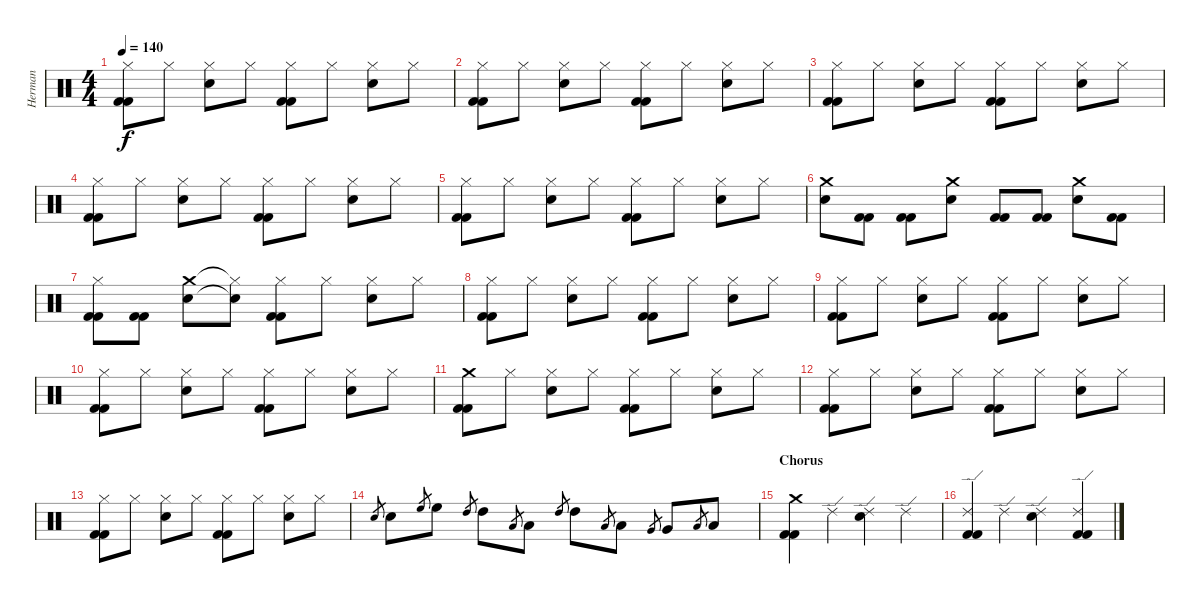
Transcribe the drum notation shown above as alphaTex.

\track ("Herman" "Herman") {instrument percussion}
\staff {score}
\articulation defaults
\ts (4 4)
\tempo 140
\clef neutral
\ks c
("Hi-Hat (closed)" "Kick (hit) 2" "Kick (hit) 2").8{dy f} "Hi-Hat (closed)".8 ("Hi-Hat (closed)" "Electric Snare (hit)").8 "Hi-Hat (closed)".8 ("Kick (hit) 2" "Kick (hit) 2" "Hi-Hat (closed)").8 "Hi-Hat (closed)".8 ("Hi-Hat (closed)" "Electric Snare (hit)").8 "Hi-Hat (closed)".8 |
("Hi-Hat (closed)" "Kick (hit) 2" "Kick (hit) 2").8 "Hi-Hat (closed)".8 ("Hi-Hat (closed)" "Electric Snare (hit)").8 "Hi-Hat (closed)".8 ("Kick (hit) 2" "Kick (hit) 2" "Hi-Hat (closed)").8 "Hi-Hat (closed)".8 ("Hi-Hat (closed)" "Electric Snare (hit)").8 "Hi-Hat (closed)".8 |
("Hi-Hat (closed)" "Kick (hit) 2" "Kick (hit) 2").8 "Hi-Hat (closed)".8 ("Hi-Hat (closed)" "Electric Snare (hit)").8 "Hi-Hat (closed)".8 ("Kick (hit) 2" "Kick (hit) 2" "Hi-Hat (closed)").8 "Hi-Hat (closed)".8 ("Hi-Hat (closed)" "Electric Snare (hit)").8 "Hi-Hat (closed)".8 |
("Hi-Hat (closed)" "Kick (hit) 2" "Kick (hit) 2").8 "Hi-Hat (closed)".8 ("Hi-Hat (closed)" "Electric Snare (hit)").8 "Hi-Hat (closed)".8 ("Kick (hit) 2" "Kick (hit) 2" "Hi-Hat (closed)").8 "Hi-Hat (closed)".8 ("Hi-Hat (closed)" "Electric Snare (hit)").8 "Hi-Hat (closed)".8 |
("Hi-Hat (closed)" "Kick (hit) 2" "Kick (hit) 2").8 "Hi-Hat (closed)".8 ("Hi-Hat (closed)" "Electric Snare (hit)").8 "Hi-Hat (closed)".8 ("Kick (hit) 2" "Kick (hit) 2" "Hi-Hat (closed)").8 "Hi-Hat (closed)".8 ("Hi-Hat (closed)" "Electric Snare (hit)").8 "Hi-Hat (closed)".8 |
("Crash medium (hit)" "Electric Snare (hit)").8 ("Kick (hit) 2" "Kick (hit) 2").8 ("Kick (hit) 2" "Kick (hit) 2").8 ("Crash medium (hit)" "Electric Snare (hit)").8 ("Kick (hit) 2" "Kick (hit) 2").8 ("Kick (hit) 2" "Kick (hit) 2").8 ("Crash medium (hit)" "Electric Snare (hit)").8 ("Kick (hit) 2" "Kick (hit) 2").8 |
("Hi-Hat (closed)" "Kick (hit) 2" "Kick (hit) 2").8 ("Kick (hit) 2" "Kick (hit) 2").8 ("Crash medium (hit)" "Electric Snare (hit)").8 ("Hi-Hat (closed)"{t} "Snare (hit)"{t}).8 ("Kick (hit) 2" "Kick (hit) 2" "Hi-Hat (closed)").8 "Hi-Hat (closed)".8 ("Hi-Hat (closed)" "Electric Snare (hit)").8 "Hi-Hat (closed)".8 |
("Hi-Hat (closed)" "Kick (hit) 2" "Kick (hit) 2").8 "Hi-Hat (closed)".8 ("Hi-Hat (closed)" "Electric Snare (hit)").8 "Hi-Hat (closed)".8 ("Kick (hit) 2" "Kick (hit) 2" "Hi-Hat (closed)").8 "Hi-Hat (closed)".8 ("Hi-Hat (closed)" "Electric Snare (hit)").8 "Hi-Hat (closed)".8 |
("Hi-Hat (closed)" "Kick (hit) 2" "Kick (hit) 2").8 "Hi-Hat (closed)".8 ("Hi-Hat (closed)" "Electric Snare (hit)").8 "Hi-Hat (closed)".8 ("Kick (hit) 2" "Kick (hit) 2" "Hi-Hat (closed)").8 "Hi-Hat (closed)".8 ("Hi-Hat (closed)" "Electric Snare (hit)").8 "Hi-Hat (closed)".8 |
("Hi-Hat (closed)" "Kick (hit) 2" "Kick (hit) 2").8 "Hi-Hat (closed)".8 ("Hi-Hat (closed)" "Electric Snare (hit)").8 "Hi-Hat (closed)".8 ("Kick (hit) 2" "Kick (hit) 2" "Hi-Hat (closed)").8 "Hi-Hat (closed)".8 ("Hi-Hat (closed)" "Electric Snare (hit)").8 "Hi-Hat (closed)".8 |
("Crash medium (hit)" "Kick (hit) 2" "Kick (hit) 2").8 "Hi-Hat (closed)".8 ("Hi-Hat (closed)" "Electric Snare (hit)").8 "Hi-Hat (closed)".8 ("Kick (hit) 2" "Kick (hit) 2" "Hi-Hat (closed)").8 "Hi-Hat (closed)".8 ("Hi-Hat (closed)" "Electric Snare (hit)").8 "Hi-Hat (closed)".8 |
("Hi-Hat (closed)" "Kick (hit) 2" "Kick (hit) 2").8 "Hi-Hat (closed)".8 ("Hi-Hat (closed)" "Electric Snare (hit)").8 "Hi-Hat (closed)".8 ("Kick (hit) 2" "Kick (hit) 2" "Hi-Hat (closed)").8 "Hi-Hat (closed)".8 ("Hi-Hat (closed)" "Electric Snare (hit)").8 "Hi-Hat (closed)".8 |
("Hi-Hat (closed)" "Kick (hit) 2" "Kick (hit) 2").8 "Hi-Hat (closed)".8 ("Hi-Hat (closed)" "Electric Snare (hit)").8 "Hi-Hat (closed)".8 ("Kick (hit) 2" "Kick (hit) 2" "Hi-Hat (closed)").8 "Hi-Hat (closed)".8 ("Hi-Hat (closed)" "Electric Snare (hit)").8 "Hi-Hat (closed)".8 |
"Electric Snare (hit)".8{gr} "Electric Snare (hit)".8 "High Floor Tom (hit)".8{gr} "High Floor Tom (hit)".8 "High Tom (hit)".8{gr} "High Tom (hit)".8 "Low Tom (hit)".8{gr} "Low Tom (hit)".8 "High Tom (hit)".8{gr} "High Tom (hit)".8 "Low Tom (hit)".8{gr} "Low Tom (hit)".8 "Very Low Tom (hit)".8{gr} "Very Low Tom (hit)".8 "Low Floor Tom (hit)".8{gr} "Low Floor Tom (hit)".8 |
\section ("" "Chorus")
("Crash medium (hit)" "Kick (hit) 2" "Kick (hit) 2").4 "Ride (edge) 2".4 ("Electric Snare (hit)" "Ride (edge) 2").4 "Ride (edge) 2".4 |
("Ride (edge) 2" "Kick (hit) 2" "Kick (hit) 2").4 "Ride (edge) 2".4 ("Electric Snare (hit)" "Ride (edge) 2").4 ("Kick (hit) 2" "Kick (hit) 2" "Ride (edge) 2").4
